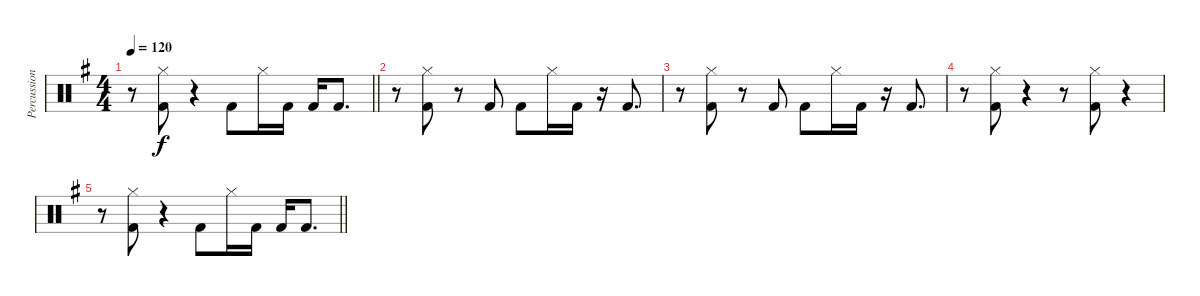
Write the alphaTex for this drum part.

\track ("Percussion" "Percussion") {instrument percussion}
\staff {score}
\articulation defaults
\ts (4 4)
\tempo 120
\clef neutral
\barLineRight lightlight
\ks eminor
r.8{dy f volume 4} ("Hi-Hat (closed)" "Kick (hit) 2").8 r.4 "Kick (hit) 2".8 "Hi-Hat (closed)".16 "Kick (hit) 2".16 "Kick (hit) 2".16 "Kick (hit) 2".8{d} |
r.8{volume 0} ("Hi-Hat (closed)" "Kick (hit) 2").8 r.8 "Kick (hit) 2".8 "Kick (hit) 2".8 "Hi-Hat (closed)".16 "Kick (hit) 2".16 r.16 "Kick (hit) 2".8{d} |
r.8 ("Hi-Hat (closed)" "Kick (hit) 2").8 r.8 "Kick (hit) 2".8 "Kick (hit) 2".8 "Hi-Hat (closed)".16 "Kick (hit) 2".16 r.16 "Kick (hit) 2".8{d} |
r.8 ("Hi-Hat (closed)" "Kick (hit) 2").8 r.4 r.8 ("Hi-Hat (closed)" "Kick (hit) 2").8 r.4 |
\barLineRight lightlight
r.8 ("Hi-Hat (closed)" "Kick (hit) 2").8 r.4 "Kick (hit) 2".8 "Hi-Hat (closed)".16 "Kick (hit) 2".16 "Kick (hit) 2".16 "Kick (hit) 2".8{d}
